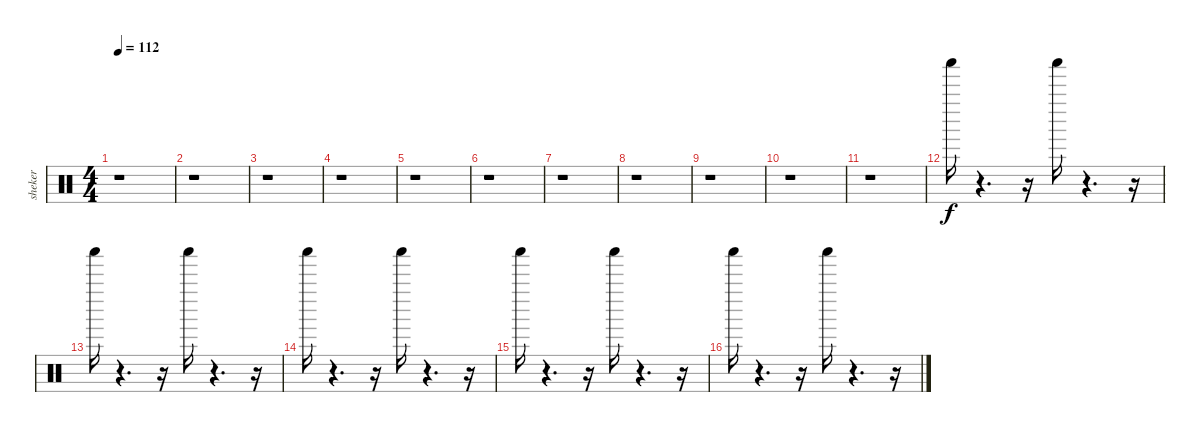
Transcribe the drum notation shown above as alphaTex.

\track ("sheker" "sheker") {instrument percussion}
\staff {score}
\articulation defaults
\ts (4 4)
\tempo 112
\clef neutral
\ks c
r.1{dy f} |
r.1 |
r.1 |
r.1 |
r.1 |
r.1 |
r.1 |
r.1 |
r.1 |
r.1 |
r.1 |
"Shaker (hit)".16 r.4{d} r.16 "Shaker (hit)".16 r.4{d} r.16 |
"Shaker (hit)".16 r.4{d} r.16 "Shaker (hit)".16 r.4{d} r.16 |
"Shaker (hit)".16 r.4{d} r.16 "Shaker (hit)".16 r.4{d} r.16 |
"Shaker (hit)".16 r.4{d} r.16 "Shaker (hit)".16 r.4{d} r.16 |
"Shaker (hit)".16 r.4{d} r.16 "Shaker (hit)".16 r.4{d} r.16
